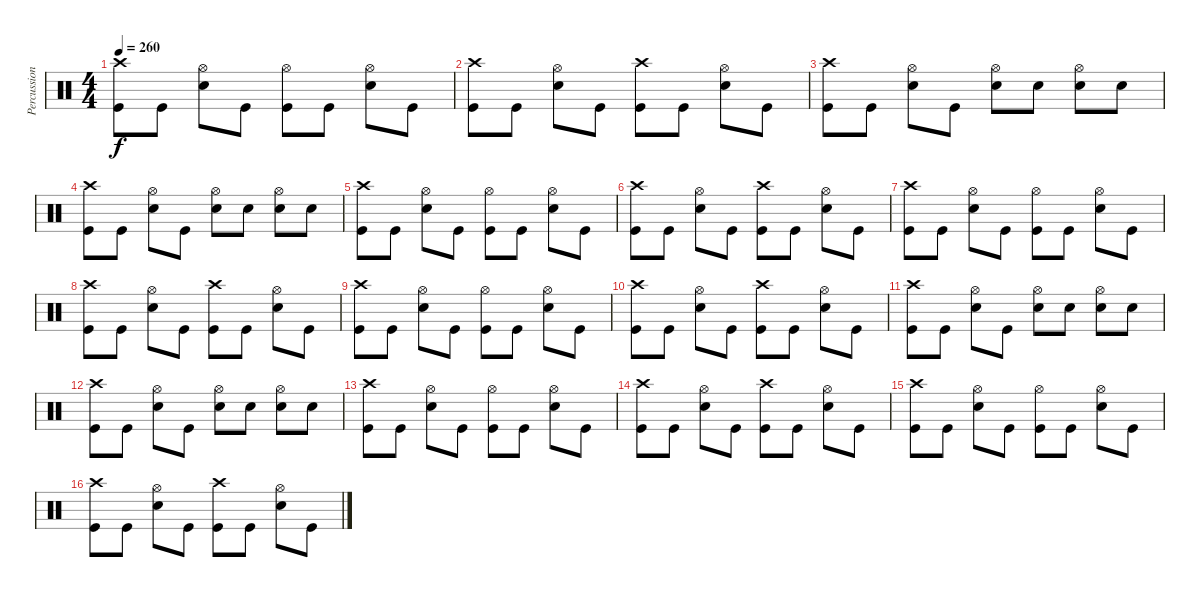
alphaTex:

\track ("Percussion" "Percussion") {instrument percussion}
\staff {score}
\articulation defaults
\ts (4 4)
\tempo 260
\clef neutral
\ks c
("Crash high (hit)" "Kick (hit)").8{dy f} "Kick (hit)".8 ("Hi-Hat (open)" "Snare (hit) 2").8 "Kick (hit)".8 ("Hi-Hat (open)" "Kick (hit)").8 "Kick (hit)".8 ("Hi-Hat (open)" "Snare (hit) 2").8 "Kick (hit)".8 |
("Crash high (hit)" "Kick (hit)").8 "Kick (hit)".8 ("Hi-Hat (open)" "Snare (hit) 2").8 "Kick (hit)".8 ("Crash high (hit)" "Kick (hit)").8 "Kick (hit)".8 ("Hi-Hat (open)" "Snare (hit) 2").8 "Kick (hit)".8 |
("Crash high (hit)" "Kick (hit)").8 "Kick (hit)".8 ("Hi-Hat (open)" "Snare (hit) 2").8 "Kick (hit)".8 ("Hi-Hat (open)" "Snare (hit) 2").8 "Snare (hit) 2".8 ("Hi-Hat (open)" "Snare (hit) 2").8 "Snare (hit) 2".8 |
("Crash high (hit)" "Kick (hit)").8 "Kick (hit)".8 ("Hi-Hat (open)" "Snare (hit) 2").8 "Kick (hit)".8 ("Hi-Hat (open)" "Snare (hit) 2").8 "Snare (hit) 2".8 ("Hi-Hat (open)" "Snare (hit) 2").8 "Snare (hit) 2".8 |
("Crash high (hit)" "Kick (hit)").8 "Kick (hit)".8 ("Hi-Hat (open)" "Snare (hit) 2").8 "Kick (hit)".8 ("Hi-Hat (open)" "Kick (hit)").8 "Kick (hit)".8 ("Hi-Hat (open)" "Snare (hit) 2").8 "Kick (hit)".8 |
("Crash high (hit)" "Kick (hit)").8 "Kick (hit)".8 ("Hi-Hat (open)" "Snare (hit) 2").8 "Kick (hit)".8 ("Crash high (hit)" "Kick (hit)").8 "Kick (hit)".8 ("Hi-Hat (open)" "Snare (hit) 2").8 "Kick (hit)".8 |
("Crash high (hit)" "Kick (hit)").8 "Kick (hit)".8 ("Hi-Hat (open)" "Snare (hit) 2").8 "Kick (hit)".8 ("Hi-Hat (open)" "Kick (hit)").8 "Kick (hit)".8 ("Hi-Hat (open)" "Snare (hit) 2").8 "Kick (hit)".8 |
("Crash high (hit)" "Kick (hit)").8 "Kick (hit)".8 ("Hi-Hat (open)" "Snare (hit) 2").8 "Kick (hit)".8 ("Crash high (hit)" "Kick (hit)").8 "Kick (hit)".8 ("Hi-Hat (open)" "Snare (hit) 2").8 "Kick (hit)".8 |
("Crash high (hit)" "Kick (hit)").8 "Kick (hit)".8 ("Hi-Hat (open)" "Snare (hit) 2").8 "Kick (hit)".8 ("Hi-Hat (open)" "Kick (hit)").8 "Kick (hit)".8 ("Hi-Hat (open)" "Snare (hit) 2").8 "Kick (hit)".8 |
("Crash high (hit)" "Kick (hit)").8 "Kick (hit)".8 ("Hi-Hat (open)" "Snare (hit) 2").8 "Kick (hit)".8 ("Crash high (hit)" "Kick (hit)").8 "Kick (hit)".8 ("Hi-Hat (open)" "Snare (hit) 2").8 "Kick (hit)".8 |
("Crash high (hit)" "Kick (hit)").8 "Kick (hit)".8 ("Hi-Hat (open)" "Snare (hit) 2").8 "Kick (hit)".8 ("Hi-Hat (open)" "Snare (hit) 2").8 "Snare (hit) 2".8 ("Hi-Hat (open)" "Snare (hit) 2").8 "Snare (hit) 2".8 |
("Crash high (hit)" "Kick (hit)").8 "Kick (hit)".8 ("Hi-Hat (open)" "Snare (hit) 2").8 "Kick (hit)".8 ("Hi-Hat (open)" "Snare (hit) 2").8 "Snare (hit) 2".8 ("Hi-Hat (open)" "Snare (hit) 2").8 "Snare (hit) 2".8 |
("Crash high (hit)" "Kick (hit)").8 "Kick (hit)".8 ("Hi-Hat (open)" "Snare (hit) 2").8 "Kick (hit)".8 ("Hi-Hat (open)" "Kick (hit)").8 "Kick (hit)".8 ("Hi-Hat (open)" "Snare (hit) 2").8 "Kick (hit)".8 |
("Crash high (hit)" "Kick (hit)").8 "Kick (hit)".8 ("Hi-Hat (open)" "Snare (hit) 2").8 "Kick (hit)".8 ("Crash high (hit)" "Kick (hit)").8 "Kick (hit)".8 ("Hi-Hat (open)" "Snare (hit) 2").8 "Kick (hit)".8 |
("Crash high (hit)" "Kick (hit)").8 "Kick (hit)".8 ("Hi-Hat (open)" "Snare (hit) 2").8 "Kick (hit)".8 ("Hi-Hat (open)" "Kick (hit)").8 "Kick (hit)".8 ("Hi-Hat (open)" "Snare (hit) 2").8 "Kick (hit)".8 |
("Crash high (hit)" "Kick (hit)").8 "Kick (hit)".8 ("Hi-Hat (open)" "Snare (hit) 2").8 "Kick (hit)".8 ("Crash high (hit)" "Kick (hit)").8 "Kick (hit)".8 ("Hi-Hat (open)" "Snare (hit) 2").8 "Kick (hit)".8
